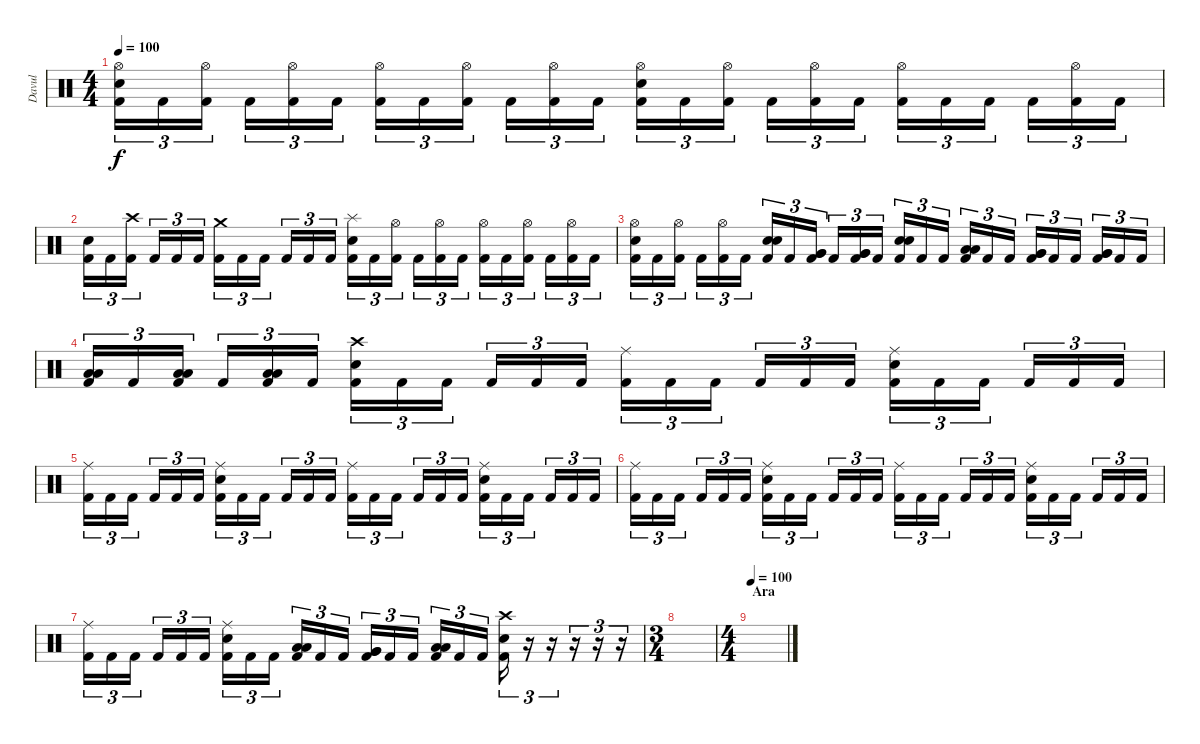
\track ("Davul" "Davul") {instrument percussion}
\staff {score}
\articulation defaults
\ts (4 4)
\tempo 100
\clef neutral
\ks c
("Hi-Hat (open)" "Electric Snare (hit)" "Kick (hit) 2").16{tu (3 2) dy f} "Kick (hit) 2".16{tu (3 2)} ("Hi-Hat (open)" "Kick (hit) 2").16{tu (3 2)} "Kick (hit) 2".16{tu (3 2)} ("Hi-Hat (open)" "Kick (hit) 2").16{tu (3 2)} "Kick (hit) 2".16{tu (3 2)} ("Hi-Hat (open)" "Kick (hit) 2").16{tu (3 2)} "Kick (hit) 2".16{tu (3 2)} ("Hi-Hat (open)" "Kick (hit) 2").16{tu (3 2)} "Kick (hit) 2".16{tu (3 2)} ("Hi-Hat (open)" "Kick (hit) 2").16{tu (3 2)} "Kick (hit) 2".16{tu (3 2)} ("Hi-Hat (open)" "Electric Snare (hit)" "Kick (hit) 2").16{tu (3 2)} "Kick (hit) 2".16{tu (3 2)} ("Hi-Hat (open)" "Kick (hit) 2").16{tu (3 2)} "Kick (hit) 2".16{tu (3 2)} ("Hi-Hat (open)" "Kick (hit) 2").16{tu (3 2)} "Kick (hit) 2".16{tu (3 2)} ("Hi-Hat (open)" "Kick (hit) 2").16{tu (3 2)} "Kick (hit) 2".16{tu (3 2)} "Kick (hit) 2".16{tu (3 2)} "Kick (hit) 2".16{tu (3 2)} ("Hi-Hat (open)" "Kick (hit) 2").16{tu (3 2)} "Kick (hit) 2".16{tu (3 2)} |
("Electric Snare (hit)" "Kick (hit) 2").16{tu (3 2)} "Kick (hit) 2".16{tu (3 2)} ("Crash high (hit)" "Kick (hit) 2").16{tu (3 2)} "Kick (hit) 2".16{tu (3 2)} "Kick (hit) 2".16{tu (3 2)} "Kick (hit) 2".16{tu (3 2)} ("Crash medium (hit)" "Kick (hit) 2").16{tu (3 2)} "Kick (hit) 2".16{tu (3 2)} "Kick (hit) 2".16{tu (3 2)} "Kick (hit) 2".16{tu (3 2)} "Kick (hit) 2".16{tu (3 2)} "Kick (hit) 2".16{tu (3 2)} ("Splash (hit)" "Electric Snare (hit)" "Kick (hit) 2").16{tu (3 2)} "Kick (hit) 2".16{tu (3 2)} ("Hi-Hat (open)" "Kick (hit) 2").16{tu (3 2)} "Kick (hit) 2".16{tu (3 2)} ("Hi-Hat (open)" "Kick (hit) 2").16{tu (3 2)} "Kick (hit) 2".16{tu (3 2)} ("Hi-Hat (open)" "Kick (hit) 2").16{tu (3 2)} "Kick (hit) 2".16{tu (3 2)} ("Hi-Hat (open)" "Kick (hit) 2").16{tu (3 2)} "Kick (hit) 2".16{tu (3 2)} ("Hi-Hat (open)" "Kick (hit) 2").16{tu (3 2)} "Kick (hit) 2".16{tu (3 2)} |
("Hi-Hat (open)" "Electric Snare (hit)" "Kick (hit) 2").16{tu (3 2)} "Kick (hit) 2".16{tu (3 2)} ("Hi-Hat (open)" "Kick (hit) 2").16{tu (3 2)} "Kick (hit) 2".16{tu (3 2)} ("Hi-Hat (open)" "Kick (hit) 2").16{tu (3 2)} "Kick (hit) 2".16{tu (3 2)} ("Electric Snare (hit)" "Electric Snare (hit)" "Kick (hit) 2").16{tu (3 2)} "Kick (hit) 2".16{tu (3 2)} ("Very Low Tom (hit)" "Very Low Tom (hit)" "Kick (hit) 2").16{tu (3 2)} "Kick (hit) 2".16{tu (3 2)} ("Very Low Tom (hit)" "Very Low Tom (hit)" "Kick (hit) 2").16{tu (3 2)} "Kick (hit) 2".16{tu (3 2)} ("Electric Snare (hit)" "Electric Snare (hit)" "Kick (hit) 2").16{tu (3 2)} "Kick (hit) 2".16{tu (3 2)} "Kick (hit) 2".16{tu (3 2)} ("Low Tom (hit)" "Low Tom (hit)" "Kick (hit) 2").16{tu (3 2)} "Kick (hit) 2".16{tu (3 2)} "Kick (hit) 2".16{tu (3 2)} ("Very Low Tom (hit)" "Very Low Tom (hit)" "Kick (hit) 2").16{tu (3 2)} "Kick (hit) 2".16{tu (3 2)} "Kick (hit) 2".16{tu (3 2)} ("Very Low Tom (hit)" "Very Low Tom (hit)" "Kick (hit) 2").16{tu (3 2)} "Kick (hit) 2".16{tu (3 2)} "Kick (hit) 2".16{tu (3 2)} |
("Low Floor Tom (hit)" "Low Floor Tom (hit)" "Kick (hit) 2").16{tu (3 2)} "Kick (hit) 2".16{tu (3 2)} ("Low Floor Tom (hit)" "Low Floor Tom (hit)" "Kick (hit) 2").16{tu (3 2)} "Kick (hit) 2".16{tu (3 2)} ("Low Floor Tom (hit)" "Low Floor Tom (hit)" "Kick (hit) 2").16{tu (3 2)} "Kick (hit) 2".16{tu (3 2)} ("Crash high (hit)" "Electric Snare (hit)" "Kick (hit) 2").16{tu (3 2)} "Kick (hit) 2".16{tu (3 2)} "Kick (hit) 2".16{tu (3 2)} "Kick (hit) 2".16{tu (3 2)} "Kick (hit) 2".16{tu (3 2)} "Kick (hit) 2".16{tu (3 2)} ("Ride (middle)" "Kick (hit) 2").16{tu (3 2)} "Kick (hit) 2".16{tu (3 2)} "Kick (hit) 2".16{tu (3 2)} "Kick (hit) 2".16{tu (3 2)} "Kick (hit) 2".16{tu (3 2)} "Kick (hit) 2".16{tu (3 2)} ("Ride (middle)" "Electric Snare (hit)" "Kick (hit) 2").16{tu (3 2)} "Kick (hit) 2".16{tu (3 2)} "Kick (hit) 2".16{tu (3 2)} "Kick (hit) 2".16{tu (3 2)} "Kick (hit) 2".16{tu (3 2)} "Kick (hit) 2".16{tu (3 2)} |
("Ride (middle)" "Kick (hit) 2").16{tu (3 2)} "Kick (hit) 2".16{tu (3 2)} "Kick (hit) 2".16{tu (3 2)} "Kick (hit) 2".16{tu (3 2)} "Kick (hit) 2".16{tu (3 2)} "Kick (hit) 2".16{tu (3 2)} ("Ride (middle)" "Electric Snare (hit)" "Kick (hit) 2").16{tu (3 2)} "Kick (hit) 2".16{tu (3 2)} "Kick (hit) 2".16{tu (3 2)} "Kick (hit) 2".16{tu (3 2)} "Kick (hit) 2".16{tu (3 2)} "Kick (hit) 2".16{tu (3 2)} ("Ride (middle)" "Kick (hit) 2").16{tu (3 2)} "Kick (hit) 2".16{tu (3 2)} "Kick (hit) 2".16{tu (3 2)} "Kick (hit) 2".16{tu (3 2)} "Kick (hit) 2".16{tu (3 2)} "Kick (hit) 2".16{tu (3 2)} ("Ride (middle)" "Electric Snare (hit)" "Kick (hit) 2").16{tu (3 2)} "Kick (hit) 2".16{tu (3 2)} "Kick (hit) 2".16{tu (3 2)} "Kick (hit) 2".16{tu (3 2)} "Kick (hit) 2".16{tu (3 2)} "Kick (hit) 2".16{tu (3 2)} |
("Ride (middle)" "Kick (hit) 2").16{tu (3 2)} "Kick (hit) 2".16{tu (3 2)} "Kick (hit) 2".16{tu (3 2)} "Kick (hit) 2".16{tu (3 2)} "Kick (hit) 2".16{tu (3 2)} "Kick (hit) 2".16{tu (3 2)} ("Ride (middle)" "Electric Snare (hit)" "Kick (hit) 2").16{tu (3 2)} "Kick (hit) 2".16{tu (3 2)} "Kick (hit) 2".16{tu (3 2)} "Kick (hit) 2".16{tu (3 2)} "Kick (hit) 2".16{tu (3 2)} "Kick (hit) 2".16{tu (3 2)} ("Ride (middle)" "Kick (hit) 2").16{tu (3 2)} "Kick (hit) 2".16{tu (3 2)} "Kick (hit) 2".16{tu (3 2)} "Kick (hit) 2".16{tu (3 2)} "Kick (hit) 2".16{tu (3 2)} "Kick (hit) 2".16{tu (3 2)} ("Ride (middle)" "Electric Snare (hit)" "Kick (hit) 2").16{tu (3 2)} "Kick (hit) 2".16{tu (3 2)} "Kick (hit) 2".16{tu (3 2)} "Kick (hit) 2".16{tu (3 2)} "Kick (hit) 2".16{tu (3 2)} "Kick (hit) 2".16{tu (3 2)} |
("Ride (middle)" "Kick (hit) 2").16{tu (3 2)} "Kick (hit) 2".16{tu (3 2)} "Kick (hit) 2".16{tu (3 2)} "Kick (hit) 2".16{tu (3 2)} "Kick (hit) 2".16{tu (3 2)} "Kick (hit) 2".16{tu (3 2)} ("Ride (middle)" "Electric Snare (hit)" "Kick (hit) 2").16{tu (3 2)} "Kick (hit) 2".16{tu (3 2)} "Kick (hit) 2".16{tu (3 2)} ("Low Tom (hit)" "Low Tom (hit)" "Kick (hit) 2").16{tu (3 2)} "Kick (hit) 2".16{tu (3 2)} "Kick (hit) 2".16{tu (3 2)} ("Very Low Tom (hit)" "Very Low Tom (hit)" "Kick (hit) 2").16{tu (3 2)} "Kick (hit) 2".16{tu (3 2)} "Kick (hit) 2".16{tu (3 2)} ("Low Floor Tom (hit)" "Low Floor Tom (hit)" "Kick (hit) 2").16{tu (3 2)} "Kick (hit) 2".16{tu (3 2)} "Kick (hit) 2".16{tu (3 2)} ("Crash high (hit)" "Electric Snare (hit)" "Kick (hit) 2").16{tu (3 2)} r.16{tu (3 2)} r.16{tu (3 2)} r.16{tu (3 2)} r.16{tu (3 2)} r.16{tu (3 2)} |
\ts (3 4)
|
\ts (4 4)
\section ("" "Ara")
\tempo 100
